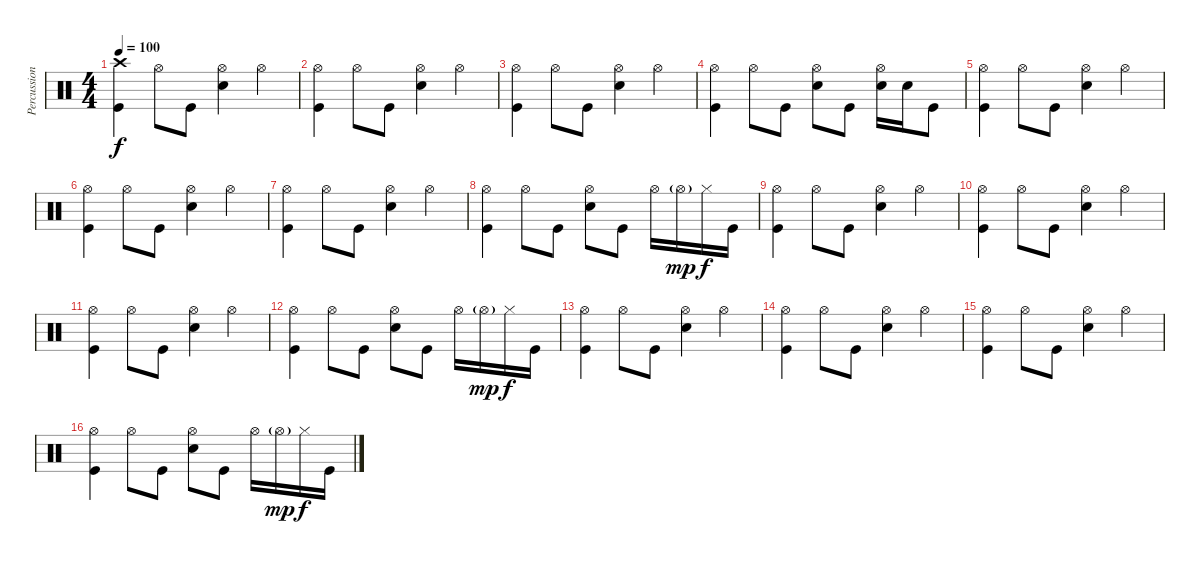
\track ("Percussion" "Percussion") {instrument percussion}
\staff {score}
\articulation defaults
\ts (4 4)
\tempo 100
\clef neutral
\ks c
("Crash high (hit)" "Kick (hit)").4{dy f} "Hi-Hat (open)".8 "Kick (hit)".8 ("Hi-Hat (open)" "Snare (hit) 2").4 "Hi-Hat (open)".4 |
("Hi-Hat (open)" "Kick (hit)").4 "Hi-Hat (open)".8 "Kick (hit)".8 ("Hi-Hat (open)" "Snare (hit) 2").4 "Hi-Hat (open)".4 |
("Hi-Hat (open)" "Kick (hit)").4 "Hi-Hat (open)".8 "Kick (hit)".8 ("Hi-Hat (open)" "Snare (hit) 2").4 "Hi-Hat (open)".4 |
("Hi-Hat (open)" "Kick (hit)").4 "Hi-Hat (open)".8 "Kick (hit)".8 ("Hi-Hat (open)" "Snare (hit) 2").8 "Kick (hit)".8 ("Hi-Hat (open)" "Snare (hit) 2").16 "Snare (hit) 2".16 "Kick (hit)".8 |
("Hi-Hat (open)" "Kick (hit)").4 "Hi-Hat (open)".8 "Kick (hit)".8 ("Hi-Hat (open)" "Snare (hit) 2").4 "Hi-Hat (open)".4 |
("Hi-Hat (open)" "Kick (hit)").4 "Hi-Hat (open)".8 "Kick (hit)".8 ("Hi-Hat (open)" "Snare (hit) 2").4 "Hi-Hat (open)".4 |
("Hi-Hat (open)" "Kick (hit)").4 "Hi-Hat (open)".8 "Kick (hit)".8 ("Hi-Hat (open)" "Snare (hit) 2").4 "Hi-Hat (open)".4 |
("Hi-Hat (open)" "Kick (hit)").4 "Hi-Hat (open)".8 "Kick (hit)".8 ("Hi-Hat (open)" "Snare (hit) 2").8 "Kick (hit)".8 "Hi-Hat (open)".16 "Hi-Hat (open)"{g}.16{dy mp} "Hi-Hat (closed)".16{dy f} "Kick (hit)".16 |
("Hi-Hat (open)" "Kick (hit)").4 "Hi-Hat (open)".8 "Kick (hit)".8 ("Hi-Hat (open)" "Snare (hit) 2").4 "Hi-Hat (open)".4 |
("Hi-Hat (open)" "Kick (hit)").4 "Hi-Hat (open)".8 "Kick (hit)".8 ("Hi-Hat (open)" "Snare (hit) 2").4 "Hi-Hat (open)".4 |
("Hi-Hat (open)" "Kick (hit)").4 "Hi-Hat (open)".8 "Kick (hit)".8 ("Hi-Hat (open)" "Snare (hit) 2").4 "Hi-Hat (open)".4 |
("Hi-Hat (open)" "Kick (hit)").4 "Hi-Hat (open)".8 "Kick (hit)".8 ("Hi-Hat (open)" "Snare (hit) 2").8 "Kick (hit)".8 "Hi-Hat (open)".16 "Hi-Hat (open)"{g}.16{dy mp} "Hi-Hat (closed)".16{dy f} "Kick (hit)".16 |
("Hi-Hat (open)" "Kick (hit)").4 "Hi-Hat (open)".8 "Kick (hit)".8 ("Hi-Hat (open)" "Snare (hit) 2").4 "Hi-Hat (open)".4 |
("Hi-Hat (open)" "Kick (hit)").4 "Hi-Hat (open)".8 "Kick (hit)".8 ("Hi-Hat (open)" "Snare (hit) 2").4 "Hi-Hat (open)".4 |
("Hi-Hat (open)" "Kick (hit)").4 "Hi-Hat (open)".8 "Kick (hit)".8 ("Hi-Hat (open)" "Snare (hit) 2").4 "Hi-Hat (open)".4 |
("Hi-Hat (open)" "Kick (hit)").4 "Hi-Hat (open)".8 "Kick (hit)".8 ("Hi-Hat (open)" "Snare (hit) 2").8 "Kick (hit)".8 "Hi-Hat (open)".16 "Hi-Hat (open)"{g}.16{dy mp} "Hi-Hat (closed)".16{dy f} "Kick (hit)".16
